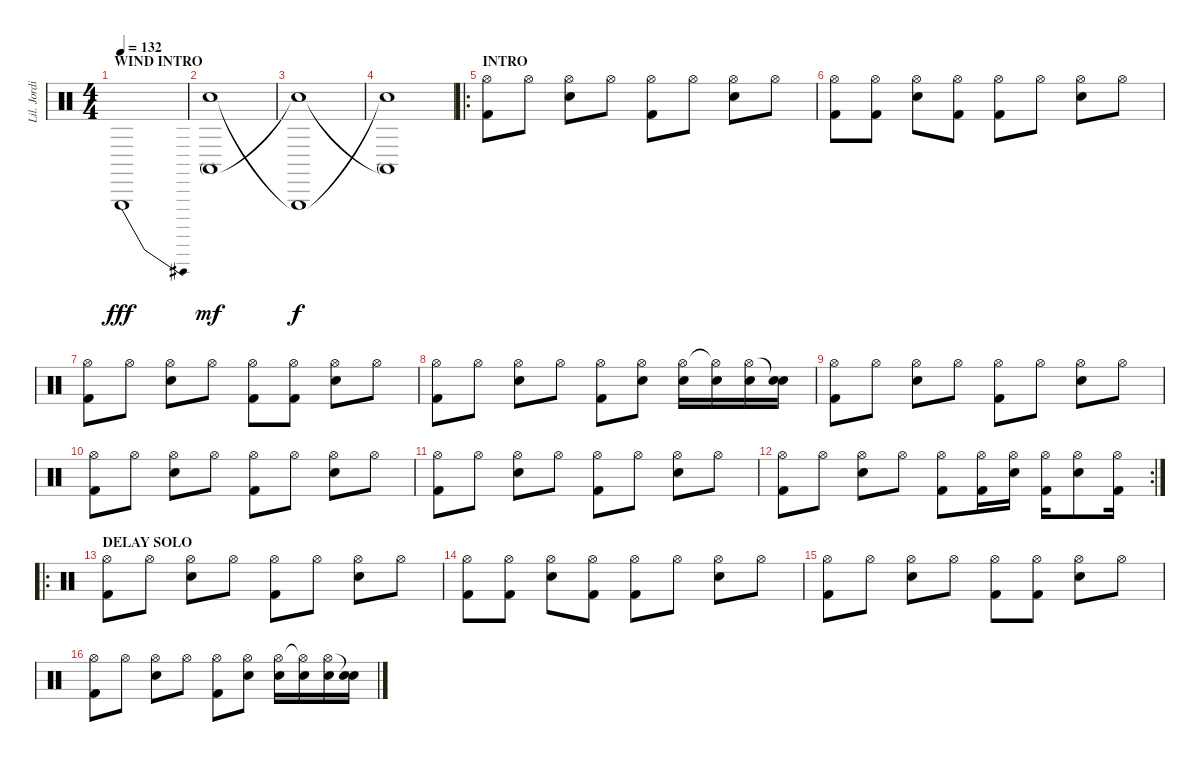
\track ("Lil. Jordison" "Lil. Jordi") {instrument percussion}
\staff {score}
\articulation defaults
\ts (4 4)
\section ("" "WIND INTRO")
\tempo 132
\clef neutral
\ks c "Triangle (hit)"{be (bend 0 0 60 12)}.1{dy fff}
|
("Conga high (mute)" "Snare (hit)").1{dy mf} |
("Snare (hit)"{t} "Triangle (hit)"{t}).1{dy f} |
("Conga high (mute)"{t} "Snare (hit)"{t}).1 |
\ro
\section ("" "INTRO")
("Hi-Hat (open)" "Kick (hit) 2").8 "Hi-Hat (open)".8 ("Hi-Hat (open)" "Electric Snare (hit)").8 "Hi-Hat (open)".8 ("Hi-Hat (open)" "Kick (hit) 2").8 "Hi-Hat (open)".8 ("Hi-Hat (open)" "Electric Snare (hit)").8 "Hi-Hat (open)".8 |
("Hi-Hat (open)" "Kick (hit) 2").8 ("Hi-Hat (open)" "Kick (hit) 2").8 ("Hi-Hat (open)" "Electric Snare (hit)").8 ("Hi-Hat (open)" "Kick (hit) 2").8 ("Hi-Hat (open)" "Kick (hit) 2").8 "Hi-Hat (open)".8 ("Hi-Hat (open)" "Electric Snare (hit)").8 "Hi-Hat (open)".8 |
("Hi-Hat (open)" "Kick (hit) 2").8 "Hi-Hat (open)".8 ("Hi-Hat (open)" "Electric Snare (hit)").8 "Hi-Hat (open)".8 ("Hi-Hat (open)" "Kick (hit) 2").8 ("Hi-Hat (open)" "Kick (hit) 2").8 ("Hi-Hat (open)" "Electric Snare (hit)").8 "Hi-Hat (open)".8 |
("Hi-Hat (open)" "Kick (hit) 2").8 "Hi-Hat (open)".8 ("Hi-Hat (open)" "Electric Snare (hit)").8 "Hi-Hat (open)".8 ("Hi-Hat (open)" "Kick (hit) 2").8 ("Hi-Hat (open)" "Electric Snare (hit)").8 ("Hi-Hat (open)" "Electric Snare (hit)").16 ("Hi-Hat (open)"{t} "Electric Snare (hit)").16 ("Hi-Hat (open)" "Electric Snare (hit)").16 ("Snare (hit)"{t} "Electric Snare (hit)").16 |
("Hi-Hat (open)" "Kick (hit) 2").8 "Hi-Hat (open)".8 ("Hi-Hat (open)" "Electric Snare (hit)").8 "Hi-Hat (open)".8 ("Hi-Hat (open)" "Kick (hit) 2").8 "Hi-Hat (open)".8 ("Hi-Hat (open)" "Electric Snare (hit)").8 "Hi-Hat (open)".8 |
("Hi-Hat (open)" "Kick (hit) 2").8 "Hi-Hat (open)".8 ("Hi-Hat (open)" "Electric Snare (hit)").8 "Hi-Hat (open)".8 ("Hi-Hat (open)" "Kick (hit) 2").8 "Hi-Hat (open)".8 ("Hi-Hat (open)" "Electric Snare (hit)").8 "Hi-Hat (open)".8 |
("Hi-Hat (open)" "Kick (hit) 2").8 "Hi-Hat (open)".8 ("Hi-Hat (open)" "Electric Snare (hit)").8 "Hi-Hat (open)".8 ("Hi-Hat (open)" "Kick (hit) 2").8 "Hi-Hat (open)".8 ("Hi-Hat (open)" "Electric Snare (hit)").8 "Hi-Hat (open)".8 |
\rc 2
("Hi-Hat (open)" "Kick (hit) 2").8 "Hi-Hat (open)".8 ("Hi-Hat (open)" "Electric Snare (hit)").8 "Hi-Hat (open)".8 ("Hi-Hat (open)" "Kick (hit) 2").8 ("Hi-Hat (open)" "Kick (hit) 2").16 ("Hi-Hat (open)" "Electric Snare (hit)").16 ("Hi-Hat (open)" "Kick (hit) 2").16 ("Hi-Hat (open)" "Electric Snare (hit)").8 ("Hi-Hat (open)" "Kick (hit) 2").16 |
\ro
\section ("" "DELAY SOLO")
("Hi-Hat (open)" "Kick (hit) 2").8 "Hi-Hat (open)".8 ("Hi-Hat (open)" "Electric Snare (hit)").8 "Hi-Hat (open)".8 ("Hi-Hat (open)" "Kick (hit) 2").8 "Hi-Hat (open)".8 ("Hi-Hat (open)" "Electric Snare (hit)").8 "Hi-Hat (open)".8 |
("Hi-Hat (open)" "Kick (hit) 2").8 ("Hi-Hat (open)" "Kick (hit) 2").8 ("Hi-Hat (open)" "Electric Snare (hit)").8 ("Hi-Hat (open)" "Kick (hit) 2").8 ("Hi-Hat (open)" "Kick (hit) 2").8 "Hi-Hat (open)".8 ("Hi-Hat (open)" "Electric Snare (hit)").8 "Hi-Hat (open)".8 |
("Hi-Hat (open)" "Kick (hit) 2").8 "Hi-Hat (open)".8 ("Hi-Hat (open)" "Electric Snare (hit)").8 "Hi-Hat (open)".8 ("Hi-Hat (open)" "Kick (hit) 2").8 ("Hi-Hat (open)" "Kick (hit) 2").8 ("Hi-Hat (open)" "Electric Snare (hit)").8 "Hi-Hat (open)".8 |
("Hi-Hat (open)" "Kick (hit) 2").8 "Hi-Hat (open)".8 ("Hi-Hat (open)" "Electric Snare (hit)").8 "Hi-Hat (open)".8 ("Hi-Hat (open)" "Kick (hit) 2").8 ("Hi-Hat (open)" "Electric Snare (hit)").8 ("Hi-Hat (open)" "Electric Snare (hit)").16 ("Hi-Hat (open)"{t} "Electric Snare (hit)").16 ("Hi-Hat (open)" "Electric Snare (hit)").16 ("Snare (hit)"{t} "Electric Snare (hit)").16
